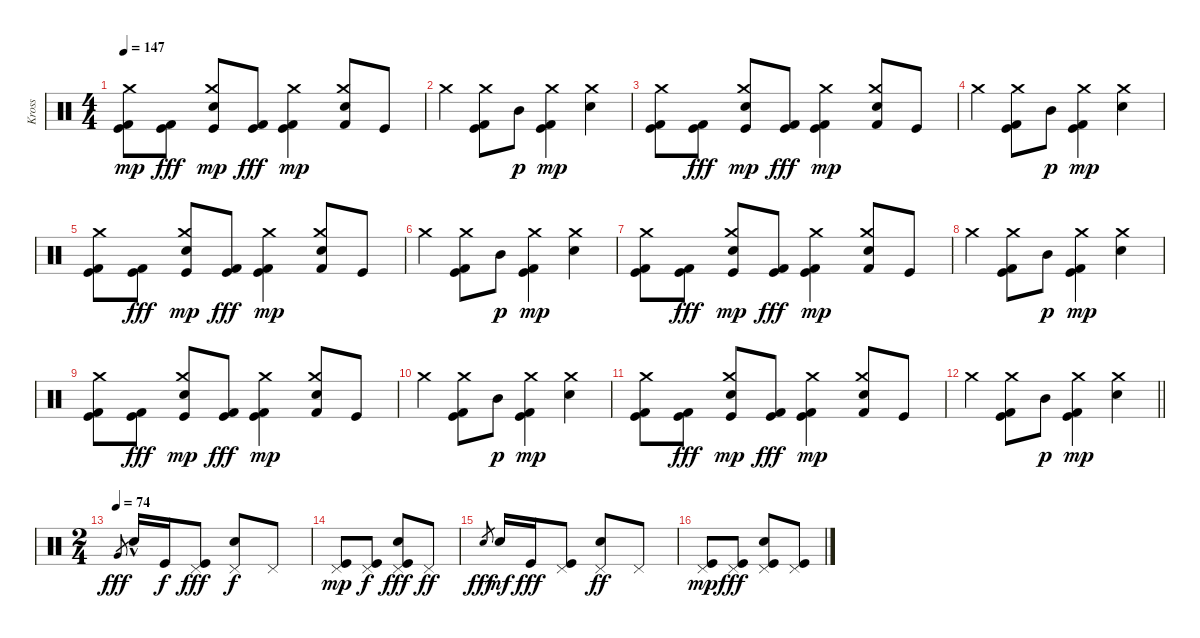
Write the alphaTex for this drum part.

\track ("Kross" "Kross") {instrument percussion}
\staff {score}
\articulation defaults
\ts (4 4)
\tempo 147
\clef neutral
\ks c
("Kick (hit) 2" "Kick (hit)" "Crash medium (hit)").8{dy mp} ("Kick (hit) 2" "Kick (hit)").8{dy fff} ("Snare (hit) 2" "Kick (hit)" "Crash medium (hit)").8{dy mp} ("Kick (hit) 2" "Kick (hit)").8{dy fff} ("Kick (hit) 2" "Kick (hit)" "Crash medium (hit)").4{dy mp} ("Snare (hit) 2" "Kick (hit) 2" "Crash medium (hit)").8 "Kick (hit)".8 |
"Crash medium (hit)".4 ("Kick (hit) 2" "Kick (hit)" "Crash medium (hit)").8 "Mid Tom (hit)".8{dy p} ("Kick (hit) 2" "Kick (hit)" "Crash medium (hit)").4{dy mp} ("Snare (hit) 2" "Crash medium (hit)").4 |
("Kick (hit) 2" "Kick (hit)" "Crash medium (hit)").8 ("Kick (hit) 2" "Kick (hit)").8{dy fff} ("Snare (hit) 2" "Kick (hit)" "Crash medium (hit)").8{dy mp} ("Kick (hit) 2" "Kick (hit)").8{dy fff} ("Kick (hit) 2" "Kick (hit)" "Crash medium (hit)").4{dy mp} ("Snare (hit) 2" "Kick (hit) 2" "Crash medium (hit)").8 "Kick (hit)".8 |
"Crash medium (hit)".4 ("Kick (hit) 2" "Kick (hit)" "Crash medium (hit)").8 "Mid Tom (hit)".8{dy p} ("Kick (hit) 2" "Kick (hit)" "Crash medium (hit)").4{dy mp} ("Snare (hit) 2" "Crash medium (hit)").4 |
("Kick (hit) 2" "Kick (hit)" "Crash medium (hit)").8 ("Kick (hit) 2" "Kick (hit)").8{dy fff} ("Snare (hit) 2" "Kick (hit)" "Crash medium (hit)").8{dy mp} ("Kick (hit) 2" "Kick (hit)").8{dy fff} ("Kick (hit) 2" "Kick (hit)" "Crash medium (hit)").4{dy mp} ("Snare (hit) 2" "Kick (hit) 2" "Crash medium (hit)").8 "Kick (hit)".8 |
"Crash medium (hit)".4 ("Kick (hit) 2" "Kick (hit)" "Crash medium (hit)").8 "Mid Tom (hit)".8{dy p} ("Kick (hit) 2" "Kick (hit)" "Crash medium (hit)").4{dy mp} ("Snare (hit) 2" "Crash medium (hit)").4 |
("Kick (hit) 2" "Kick (hit)" "Crash medium (hit)").8 ("Kick (hit) 2" "Kick (hit)").8{dy fff} ("Snare (hit) 2" "Kick (hit)" "Crash medium (hit)").8{dy mp} ("Kick (hit) 2" "Kick (hit)").8{dy fff} ("Kick (hit) 2" "Kick (hit)" "Crash medium (hit)").4{dy mp} ("Snare (hit) 2" "Kick (hit) 2" "Crash medium (hit)").8 "Kick (hit)".8 |
"Crash medium (hit)".4 ("Kick (hit) 2" "Kick (hit)" "Crash medium (hit)").8 "Mid Tom (hit)".8{dy p} ("Kick (hit) 2" "Kick (hit)" "Crash medium (hit)").4{dy mp} ("Snare (hit) 2" "Crash medium (hit)").4 |
("Kick (hit) 2" "Kick (hit)" "Crash medium (hit)").8 ("Kick (hit) 2" "Kick (hit)").8{dy fff} ("Snare (hit) 2" "Kick (hit)" "Crash medium (hit)").8{dy mp} ("Kick (hit) 2" "Kick (hit)").8{dy fff} ("Kick (hit) 2" "Kick (hit)" "Crash medium (hit)").4{dy mp} ("Snare (hit) 2" "Kick (hit) 2" "Crash medium (hit)").8 "Kick (hit)".8 |
"Crash medium (hit)".4 ("Kick (hit) 2" "Kick (hit)" "Crash medium (hit)").8 "Mid Tom (hit)".8{dy p} ("Kick (hit) 2" "Kick (hit)" "Crash medium (hit)").4{dy mp} ("Snare (hit) 2" "Crash medium (hit)").4 |
("Kick (hit) 2" "Kick (hit)" "Crash medium (hit)").8 ("Kick (hit) 2" "Kick (hit)").8{dy fff} ("Snare (hit) 2" "Kick (hit)" "Crash medium (hit)").8{dy mp} ("Kick (hit) 2" "Kick (hit)").8{dy fff} ("Kick (hit) 2" "Kick (hit)" "Crash medium (hit)").4{dy mp} ("Snare (hit) 2" "Kick (hit) 2" "Crash medium (hit)").8 "Kick (hit)".8 |
\barLineRight lightlight "Crash medium (hit)".4
("Kick (hit) 2" "Kick (hit)" "Crash medium (hit)").8 "Mid Tom (hit)".8{dy p} ("Kick (hit) 2" "Kick (hit)" "Crash medium (hit)").4{dy mp} ("Snare (hit) 2" "Crash medium (hit)").4 |
\ts (2 4)
\tempo (74)
"Very Low Tom (hit)"{h}.8{gr dy fff} "Electric Snare (hit)"{hac}.16 "Kick (hit)".16{dy f} ("Pedal Hi-Hat (hit)" "Kick (hit)").8{dy fff} ("Snare (hit) 2" "Pedal Hi-Hat (hit)").8{dy f} "Pedal Hi-Hat (hit)".8 |
("Kick (hit)" "Pedal Hi-Hat (hit)").8{dy mp} ("Kick (hit)" "Pedal Hi-Hat (hit)").8{dy f} ("Kick (hit)" "Snare (hit) 2" "Pedal Hi-Hat (hit)").8{dy fff} "Pedal Hi-Hat (hit)".8{dy ff} |
"Electric Snare (hit)".8{gr dy fff} "Electric Snare (hit)".16{dy mf} "Kick (hit)".16{dy fff} ("Pedal Hi-Hat (hit)" "Kick (hit)").8 ("Snare (hit) 2" "Pedal Hi-Hat (hit)").8{dy ff} "Pedal Hi-Hat (hit)".8 |
("Kick (hit)" "Pedal Hi-Hat (hit)").8{dy mp volume 0 balance 16} ("Kick (hit)" "Pedal Hi-Hat (hit)").8{dy fff} ("Kick (hit)" "Snare (hit) 2" "Pedal Hi-Hat (hit)").8 ("Pedal Hi-Hat (hit)" "Kick (hit)").8
